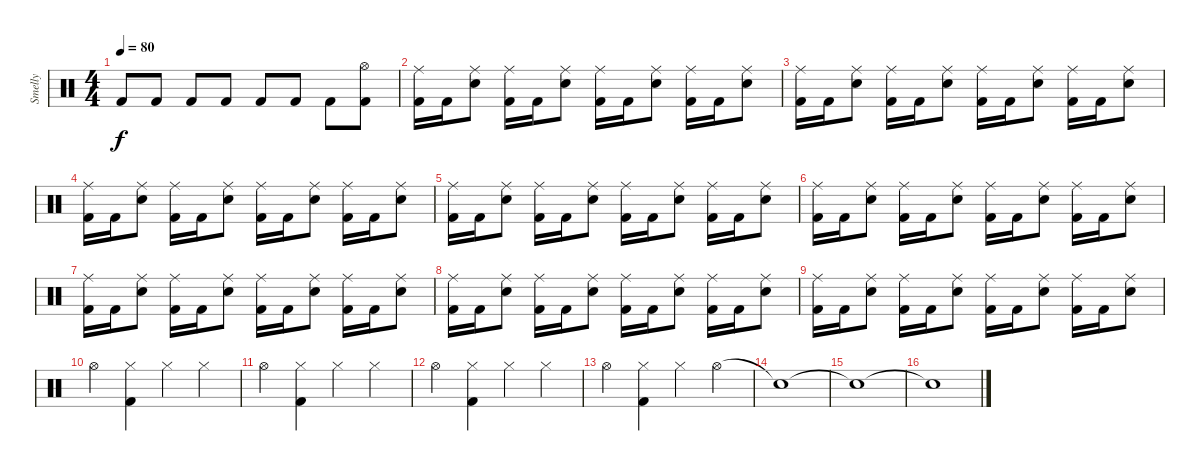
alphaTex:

\track ("Smelly" "Smelly") {instrument percussion}
\staff {score}
\articulation defaults
\ts (4 4)
\tempo 80
\clef neutral
\ks c "Kick (hit) 2".8{dy f} "Kick (hit) 2".8 "Kick (hit) 2".8 "Kick (hit) 2".8 "Kick (hit) 2".8 "Kick (hit) 2".8 "Kick (hit) 2".8
("Hi-Hat (open)" "Kick (hit) 2").8 |
("Ride (middle)" "Kick (hit) 2").16 "Kick (hit) 2".16 ("Ride (middle)" "Electric Snare (hit)").8 ("Ride (middle)" "Kick (hit) 2").16 "Kick (hit) 2".16 ("Ride (middle)" "Electric Snare (hit)").8 ("Ride (middle)" "Kick (hit) 2").16 "Kick (hit) 2".16 ("Ride (middle)" "Electric Snare (hit)").8 ("Ride (middle)" "Kick (hit) 2").16 "Kick (hit) 2".16 ("Ride (middle)" "Electric Snare (hit)").8 |
("Ride (middle)" "Kick (hit) 2").16 "Kick (hit) 2".16 ("Ride (middle)" "Electric Snare (hit)").8 ("Ride (middle)" "Kick (hit) 2").16 "Kick (hit) 2".16 ("Ride (middle)" "Electric Snare (hit)").8 ("Ride (middle)" "Kick (hit) 2").16 "Kick (hit) 2".16 ("Ride (middle)" "Electric Snare (hit)").8 ("Ride (middle)" "Kick (hit) 2").16 "Kick (hit) 2".16 ("Ride (middle)" "Electric Snare (hit)").8 |
("Ride (middle)" "Kick (hit) 2").16 "Kick (hit) 2".16 ("Ride (middle)" "Electric Snare (hit)").8 ("Ride (middle)" "Kick (hit) 2").16 "Kick (hit) 2".16 ("Ride (middle)" "Electric Snare (hit)").8 ("Ride (middle)" "Kick (hit) 2").16 "Kick (hit) 2".16 ("Ride (middle)" "Electric Snare (hit)").8 ("Ride (middle)" "Kick (hit) 2").16 "Kick (hit) 2".16 ("Ride (middle)" "Electric Snare (hit)").8 |
("Ride (middle)" "Kick (hit) 2").16 "Kick (hit) 2".16 ("Ride (middle)" "Electric Snare (hit)").8 ("Ride (middle)" "Kick (hit) 2").16 "Kick (hit) 2".16 ("Ride (middle)" "Electric Snare (hit)").8 ("Ride (middle)" "Kick (hit) 2").16 "Kick (hit) 2".16 ("Ride (middle)" "Electric Snare (hit)").8 ("Ride (middle)" "Kick (hit) 2").16 "Kick (hit) 2".16 ("Ride (middle)" "Electric Snare (hit)").8 |
("Ride (middle)" "Kick (hit) 2").16 "Kick (hit) 2".16 ("Ride (middle)" "Electric Snare (hit)").8 ("Ride (middle)" "Kick (hit) 2").16 "Kick (hit) 2".16 ("Ride (middle)" "Electric Snare (hit)").8 ("Ride (middle)" "Kick (hit) 2").16 "Kick (hit) 2".16 ("Ride (middle)" "Electric Snare (hit)").8 ("Ride (middle)" "Kick (hit) 2").16 "Kick (hit) 2".16 ("Ride (middle)" "Electric Snare (hit)").8 |
("Ride (middle)" "Kick (hit) 2").16 "Kick (hit) 2".16 ("Ride (middle)" "Electric Snare (hit)").8 ("Ride (middle)" "Kick (hit) 2").16 "Kick (hit) 2".16 ("Ride (middle)" "Electric Snare (hit)").8 ("Ride (middle)" "Kick (hit) 2").16 "Kick (hit) 2".16 ("Ride (middle)" "Electric Snare (hit)").8 ("Ride (middle)" "Kick (hit) 2").16 "Kick (hit) 2".16 ("Ride (middle)" "Electric Snare (hit)").8 |
("Ride (middle)" "Kick (hit) 2").16 "Kick (hit) 2".16 ("Ride (middle)" "Electric Snare (hit)").8 ("Ride (middle)" "Kick (hit) 2").16 "Kick (hit) 2".16 ("Ride (middle)" "Electric Snare (hit)").8 ("Ride (middle)" "Kick (hit) 2").16 "Kick (hit) 2".16 ("Ride (middle)" "Electric Snare (hit)").8 ("Ride (middle)" "Kick (hit) 2").16 "Kick (hit) 2".16 ("Ride (middle)" "Electric Snare (hit)").8 |
("Ride (middle)" "Kick (hit) 2").16 "Kick (hit) 2".16 ("Ride (middle)" "Electric Snare (hit)").8 ("Ride (middle)" "Kick (hit) 2").16 "Kick (hit) 2".16 ("Ride (middle)" "Electric Snare (hit)").8 ("Ride (middle)" "Kick (hit) 2").16 "Kick (hit) 2".16 ("Ride (middle)" "Electric Snare (hit)").8 ("Ride (middle)" "Kick (hit) 2").16 "Kick (hit) 2".16 ("Ride (middle)" "Electric Snare (hit)").8 |
"Hi-Hat (open)".4 ("Hi-Hat (closed)" "Kick (hit) 2").4 "Hi-Hat (closed)".4 "Hi-Hat (closed)".4 |
"Hi-Hat (open)".4 ("Hi-Hat (closed)" "Kick (hit) 2").4 "Hi-Hat (closed)".4 "Hi-Hat (closed)".4 |
"Hi-Hat (open)".4 ("Hi-Hat (closed)" "Kick (hit) 2").4 "Hi-Hat (closed)".4 "Hi-Hat (closed)".4 |
"Hi-Hat (open)".4 ("Hi-Hat (closed)" "Kick (hit) 2").4 "Hi-Hat (closed)".4 "Hi-Hat (open)".4 |
"Snare (hit)"{t}.1 |
"Snare (hit)"{t}.1 |
"Snare (hit)"{t}.1
